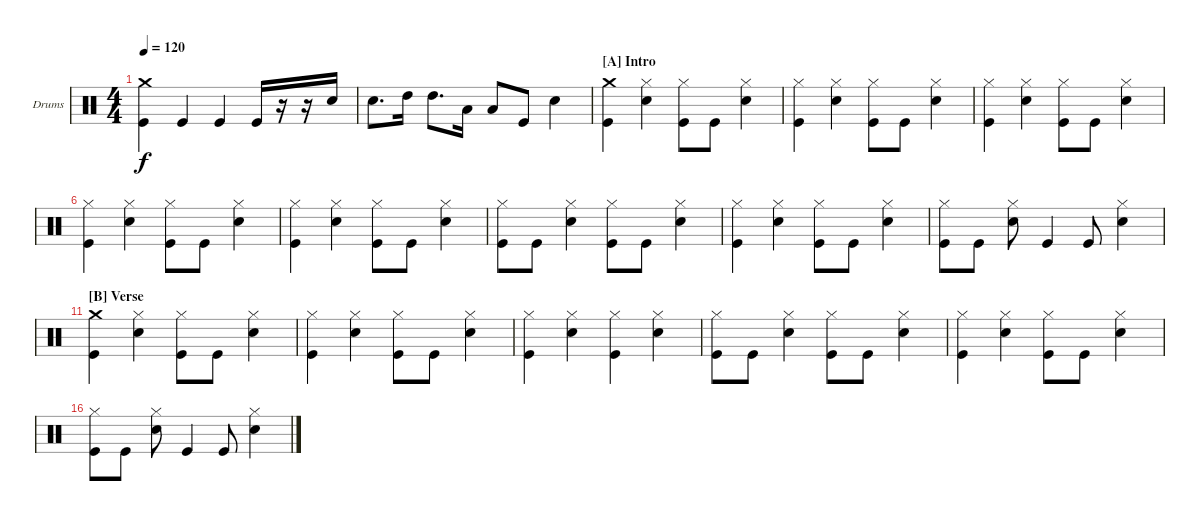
\bracketExtendMode nobrackets
\firstSystemTrackNameOrientation horizontal
\otherSystemsTrackNameOrientation horizontal
\defaultBarNumberDisplay FirstOfSystem
\track ("Drumkit" "Drums") {instrument percussion}
\staff {score}
\articulation defaults
\ts (4 4)
\tempo 120
\clef neutral
\scale
0.210256
\ks c
("Crash medium (hit)" "Kick (hit)").4{dy f} "Kick (hit)".4 "Kick (hit)".4 "Kick (hit)".16 r.16 r.16 "Snare (hit) 2".16 |
\scale
0.212821 "Snare (hit) 2".8{d} "High Tom (hit)".16 "High Tom (hit)".8{d} "Low Tom (hit)".16 "Low Tom (hit)".8 "Kick (hit)".8 "Snare (hit) 2".4 |
\section ("A" "Intro")
\scale
0.25 ("Crash medium (hit)" "Kick (hit)").4 ("Hi-Hat (closed)" "Snare (hit) 2").4 ("Hi-Hat (closed)" "Kick (hit)").8 "Kick (hit)".8 ("Hi-Hat (closed)" "Snare (hit) 2").4 |
\scale
0.25 ("Hi-Hat (closed)" "Kick (hit)").4 ("Hi-Hat (closed)" "Snare (hit) 2").4 ("Hi-Hat (closed)" "Kick (hit)").8 "Kick (hit)".8 ("Hi-Hat (closed)" "Snare (hit) 2").4 |
\scale
0.25 ("Hi-Hat (closed)" "Kick (hit)").4 ("Hi-Hat (closed)" "Snare (hit) 2").4 ("Hi-Hat (closed)" "Kick (hit)").8 "Kick (hit)".8 ("Hi-Hat (closed)" "Snare (hit) 2").4 |
\scale
0.25 ("Hi-Hat (closed)" "Kick (hit)").4 ("Hi-Hat (closed)" "Snare (hit) 2").4 ("Hi-Hat (closed)" "Kick (hit)").8 "Kick (hit)".8 ("Hi-Hat (closed)" "Snare (hit) 2").4 |
\scale
0.240741 ("Kick (hit)" "Hi-Hat (closed)").4 ("Hi-Hat (closed)" "Snare (hit) 2").4 ("Hi-Hat (closed)" "Kick (hit)").8 "Kick (hit)".8 ("Hi-Hat (closed)" "Snare (hit) 2").4 |
\scale
0.240741 ("Hi-Hat (closed)" "Kick (hit)").8 "Kick (hit)".8 ("Hi-Hat (closed)" "Snare (hit) 2").4 ("Hi-Hat (closed)" "Kick (hit)").8 "Kick (hit)".8 ("Hi-Hat (closed)" "Snare (hit) 2").4 |
\scale
0.277778 ("Kick (hit)" "Hi-Hat (closed)").4 ("Hi-Hat (closed)" "Snare (hit) 2").4 ("Hi-Hat (closed)" "Kick (hit)").8 "Kick (hit)".8 ("Hi-Hat (closed)" "Snare (hit) 2").4 |
\scale
0.240741 ("Hi-Hat (closed)" "Kick (hit)").8 "Kick (hit)".8 ("Hi-Hat (closed)" "Snare (hit) 2").8 "Kick (hit)".4 "Kick (hit)".8 ("Hi-Hat (closed)" "Snare (hit) 2").4 |
\section ("B" "Verse")
\scale
0.245283 ("Crash medium (hit)" "Kick (hit)").4 ("Hi-Hat (closed)" "Snare (hit) 2").4 ("Hi-Hat (closed)" "Kick (hit)").8 "Kick (hit)".8 ("Hi-Hat (closed)" "Snare (hit) 2").4 |
\scale
0.245283 ("Hi-Hat (closed)" "Kick (hit)").4 ("Hi-Hat (closed)" "Snare (hit) 2").4 ("Hi-Hat (closed)" "Kick (hit)").8 "Kick (hit)".8 ("Hi-Hat (closed)" "Snare (hit) 2").4 |
\scale
0.264151 ("Hi-Hat (closed)" "Kick (hit)").4 ("Hi-Hat (closed)" "Snare (hit) 2").4 ("Hi-Hat (closed)" "Kick (hit)").4 ("Hi-Hat (closed)" "Snare (hit) 2").4 |
\scale
0.245283 ("Hi-Hat (closed)" "Kick (hit)").8 "Kick (hit)".8 ("Hi-Hat (closed)" "Snare (hit) 2").4 ("Hi-Hat (closed)" "Kick (hit)").8 "Kick (hit)".8 ("Hi-Hat (closed)" "Snare (hit) 2").4 |
\scale
0.277778 ("Kick (hit)" "Hi-Hat (closed)").4 ("Hi-Hat (closed)" "Snare (hit) 2").4 ("Hi-Hat (closed)" "Kick (hit)").8 "Kick (hit)".8 ("Hi-Hat (closed)" "Snare (hit) 2").4 |
\scale
0.240741 ("Hi-Hat (closed)" "Kick (hit)").8 "Kick (hit)".8 ("Hi-Hat (closed)" "Snare (hit) 2").8 "Kick (hit)".4 "Kick (hit)".8 ("Hi-Hat (closed)" "Snare (hit) 2").4
